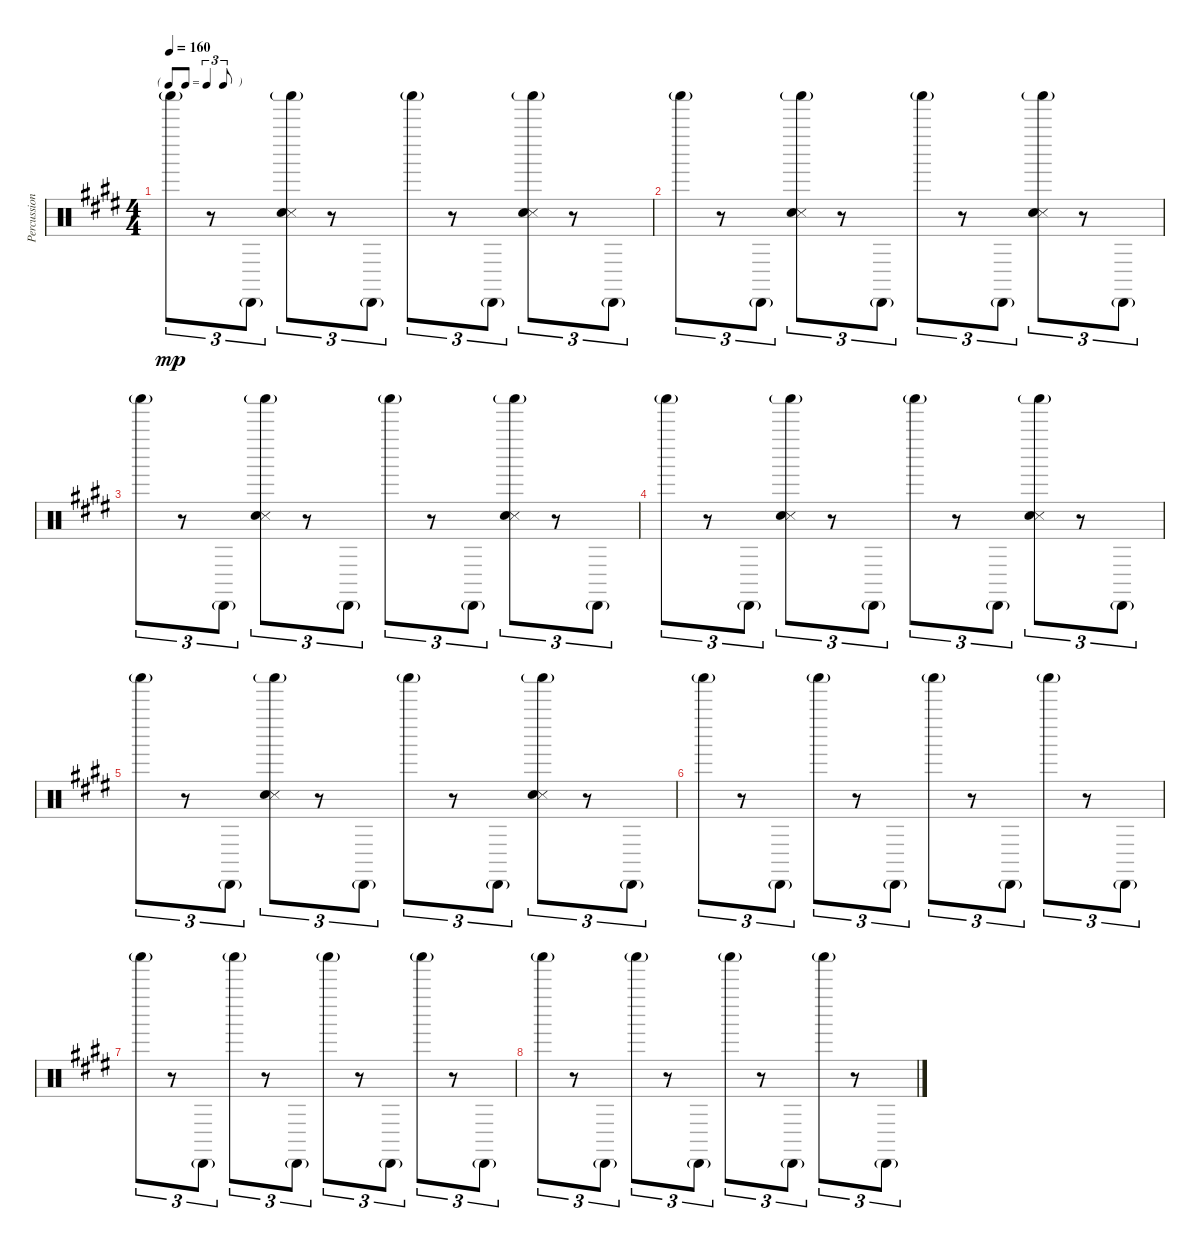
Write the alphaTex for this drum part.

\track ("Percussion" "Percussion") {instrument percussion}
\staff {score}
\articulation defaults
\ts (4 4)
\tf triplet8th
\tempo 160
\clef neutral
\ks e "Shaker (hit)"{g}.8{tu (3 2) dy mp}
r.8{tu (3 2)} "Cabasa (hit)"{g}.8{tu (3 2)} ("Shaker (hit)"{g} "Snare (side stick) 3" "Hand Clap (hit)").8{tu (3 2)} r.8{tu (3 2)} "Cabasa (hit)"{g}.8{tu (3 2)} "Shaker (hit)"{g}.8{tu (3 2)} r.8{tu (3 2)} "Cabasa (hit)"{g}.8{tu (3 2)} ("Shaker (hit)"{g} "Snare (side stick) 3" "Hand Clap (hit)").8{tu (3 2)} r.8{tu (3 2)} "Cabasa (hit)"{g}.8{tu (3 2)} |
"Shaker (hit)"{g}.8{tu (3 2)} r.8{tu (3 2)} "Cabasa (hit)"{g}.8{tu (3 2)} ("Shaker (hit)"{g} "Snare (side stick) 3" "Hand Clap (hit)").8{tu (3 2)} r.8{tu (3 2)} "Cabasa (hit)"{g}.8{tu (3 2)} "Shaker (hit)"{g}.8{tu (3 2)} r.8{tu (3 2)} "Cabasa (hit)"{g}.8{tu (3 2)} ("Shaker (hit)"{g} "Snare (side stick) 3" "Hand Clap (hit)").8{tu (3 2)} r.8{tu (3 2)} "Cabasa (hit)"{g}.8{tu (3 2)} |
"Shaker (hit)"{g}.8{tu (3 2)} r.8{tu (3 2)} "Cabasa (hit)"{g}.8{tu (3 2)} ("Shaker (hit)"{g} "Snare (side stick) 3" "Hand Clap (hit)").8{tu (3 2)} r.8{tu (3 2)} "Cabasa (hit)"{g}.8{tu (3 2)} "Shaker (hit)"{g}.8{tu (3 2)} r.8{tu (3 2)} "Cabasa (hit)"{g}.8{tu (3 2)} ("Shaker (hit)"{g} "Snare (side stick) 3" "Hand Clap (hit)").8{tu (3 2)} r.8{tu (3 2)} "Cabasa (hit)"{g}.8{tu (3 2)} |
"Shaker (hit)"{g}.8{tu (3 2)} r.8{tu (3 2)} "Cabasa (hit)"{g}.8{tu (3 2)} ("Shaker (hit)"{g} "Snare (side stick) 3" "Hand Clap (hit)").8{tu (3 2)} r.8{tu (3 2)} "Cabasa (hit)"{g}.8{tu (3 2)} "Shaker (hit)"{g}.8{tu (3 2)} r.8{tu (3 2)} "Cabasa (hit)"{g}.8{tu (3 2)} ("Shaker (hit)"{g} "Snare (side stick) 3" "Hand Clap (hit)").8{tu (3 2)} r.8{tu (3 2)} "Cabasa (hit)"{g}.8{tu (3 2)} |
"Shaker (hit)"{g}.8{tu (3 2)} r.8{tu (3 2)} "Cabasa (hit)"{g}.8{tu (3 2)} ("Shaker (hit)"{g} "Snare (side stick) 3" "Hand Clap (hit)").8{tu (3 2)} r.8{tu (3 2)} "Cabasa (hit)"{g}.8{tu (3 2)} "Shaker (hit)"{g}.8{tu (3 2)} r.8{tu (3 2)} "Cabasa (hit)"{g}.8{tu (3 2)} ("Shaker (hit)"{g} "Snare (side stick) 3" "Hand Clap (hit)").8{tu (3 2)} r.8{tu (3 2)} "Cabasa (hit)"{g}.8{tu (3 2)} |
"Shaker (hit)"{g}.8{tu (3 2)} r.8{tu (3 2)} "Cabasa (hit)"{g}.8{tu (3 2)} "Shaker (hit)"{g}.8{tu (3 2)} r.8{tu (3 2)} "Cabasa (hit)"{g}.8{tu (3 2)} "Shaker (hit)"{g}.8{tu (3 2)} r.8{tu (3 2)} "Cabasa (hit)"{g}.8{tu (3 2)} "Shaker (hit)"{g}.8{tu (3 2)} r.8{tu (3 2)} "Cabasa (hit)"{g}.8{tu (3 2)} |
"Shaker (hit)"{g}.8{tu (3 2)} r.8{tu (3 2)} "Cabasa (hit)"{g}.8{tu (3 2)} "Shaker (hit)"{g}.8{tu (3 2)} r.8{tu (3 2)} "Cabasa (hit)"{g}.8{tu (3 2)} "Shaker (hit)"{g}.8{tu (3 2)} r.8{tu (3 2)} "Cabasa (hit)"{g}.8{tu (3 2)} "Shaker (hit)"{g}.8{tu (3 2)} r.8{tu (3 2)} "Cabasa (hit)"{g}.8{tu (3 2)} |
"Shaker (hit)"{g}.8{tu (3 2)} r.8{tu (3 2)} "Cabasa (hit)"{g}.8{tu (3 2)} "Shaker (hit)"{g}.8{tu (3 2)} r.8{tu (3 2)} "Cabasa (hit)"{g}.8{tu (3 2)} "Shaker (hit)"{g}.8{tu (3 2)} r.8{tu (3 2)} "Cabasa (hit)"{g}.8{tu (3 2)} "Shaker (hit)"{g}.8{tu (3 2)} r.8{tu (3 2)} "Cabasa (hit)"{g}.8{tu (3 2)}
